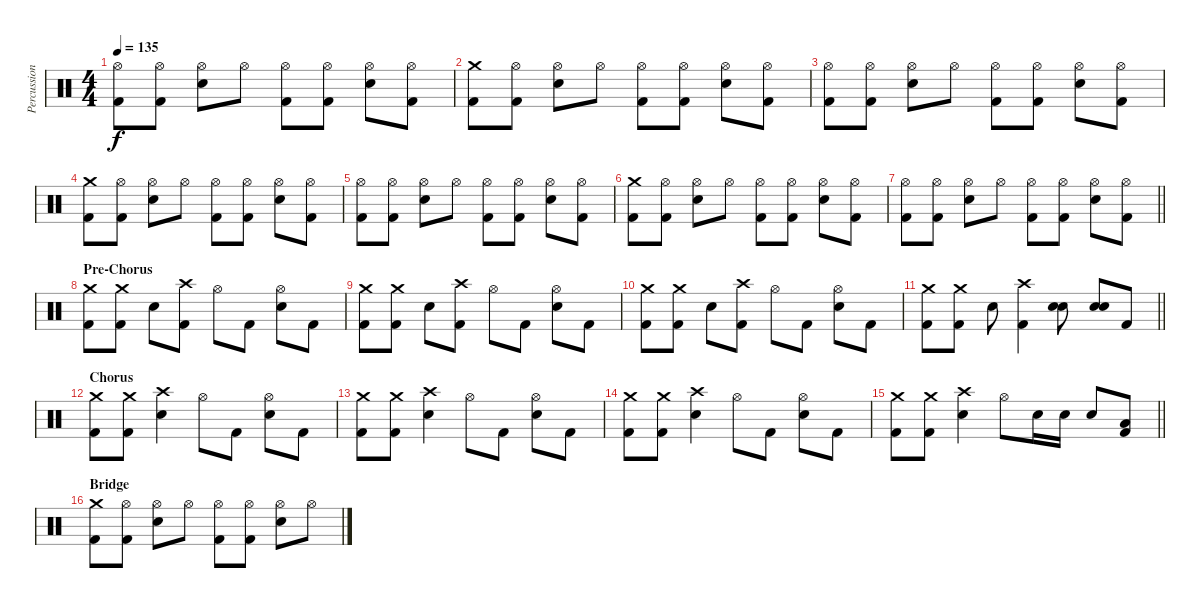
\track ("Percussion" "Percussion") {instrument percussion}
\staff {score}
\articulation defaults
\ts (4 4)
\tempo 135
\clef neutral
\ks c
("Hi-Hat (open)" "Kick (hit) 2").8{dy f} ("Hi-Hat (open)" "Kick (hit) 2").8 ("Hi-Hat (open)" "Electric Snare (hit)").8 "Hi-Hat (open)".8 ("Hi-Hat (open)" "Kick (hit) 2").8 ("Hi-Hat (open)" "Kick (hit) 2").8 ("Hi-Hat (open)" "Electric Snare (hit)").8 ("Hi-Hat (open)" "Kick (hit) 2").8 |
("Crash medium (hit)" "Kick (hit) 2").8 ("Hi-Hat (open)" "Kick (hit) 2").8 ("Hi-Hat (open)" "Electric Snare (hit)").8 "Hi-Hat (open)".8 ("Hi-Hat (open)" "Kick (hit) 2").8 ("Hi-Hat (open)" "Kick (hit) 2").8 ("Hi-Hat (open)" "Electric Snare (hit)").8 ("Hi-Hat (open)" "Kick (hit) 2").8 |
("Hi-Hat (open)" "Kick (hit) 2").8 ("Hi-Hat (open)" "Kick (hit) 2").8 ("Hi-Hat (open)" "Electric Snare (hit)").8 "Hi-Hat (open)".8 ("Hi-Hat (open)" "Kick (hit) 2").8 ("Hi-Hat (open)" "Kick (hit) 2").8 ("Hi-Hat (open)" "Electric Snare (hit)").8 ("Hi-Hat (open)" "Kick (hit) 2").8 |
("Crash medium (hit)" "Kick (hit) 2").8 ("Hi-Hat (open)" "Kick (hit) 2").8 ("Hi-Hat (open)" "Electric Snare (hit)").8 "Hi-Hat (open)".8 ("Hi-Hat (open)" "Kick (hit) 2").8 ("Hi-Hat (open)" "Kick (hit) 2").8 ("Hi-Hat (open)" "Electric Snare (hit)").8 ("Hi-Hat (open)" "Kick (hit) 2").8 |
("Hi-Hat (open)" "Kick (hit) 2").8 ("Hi-Hat (open)" "Kick (hit) 2").8 ("Hi-Hat (open)" "Electric Snare (hit)").8 "Hi-Hat (open)".8 ("Hi-Hat (open)" "Kick (hit) 2").8 ("Hi-Hat (open)" "Kick (hit) 2").8 ("Hi-Hat (open)" "Electric Snare (hit)").8 ("Hi-Hat (open)" "Kick (hit) 2").8 |
("Crash medium (hit)" "Kick (hit) 2").8 ("Hi-Hat (open)" "Kick (hit) 2").8 ("Hi-Hat (open)" "Electric Snare (hit)").8 "Hi-Hat (open)".8 ("Hi-Hat (open)" "Kick (hit) 2").8 ("Hi-Hat (open)" "Kick (hit) 2").8 ("Hi-Hat (open)" "Electric Snare (hit)").8 ("Hi-Hat (open)" "Kick (hit) 2").8 |
\barLineRight lightlight
("Hi-Hat (open)" "Kick (hit) 2").8 ("Hi-Hat (open)" "Kick (hit) 2").8 ("Hi-Hat (open)" "Electric Snare (hit)").8 "Hi-Hat (open)".8 ("Hi-Hat (open)" "Kick (hit) 2").8 ("Hi-Hat (open)" "Kick (hit) 2").8 ("Hi-Hat (open)" "Electric Snare (hit)").8 ("Hi-Hat (open)" "Kick (hit) 2").8 |
\section ("" "Pre-Chorus")
("Crash medium (hit)" "Kick (hit) 2").8 ("Crash medium (hit)" "Kick (hit) 2").8 "Electric Snare (hit)".8 ("Crash high (hit)" "Kick (hit) 2").8 "Hi-Hat (open)".8 "Kick (hit) 2".8 ("Hi-Hat (open)" "Electric Snare (hit)").8 "Kick (hit) 2".8 |
("Crash medium (hit)" "Kick (hit) 2").8 ("Crash medium (hit)" "Kick (hit) 2").8 "Electric Snare (hit)".8 ("Crash high (hit)" "Kick (hit) 2").8 "Hi-Hat (open)".8 "Kick (hit) 2".8 ("Hi-Hat (open)" "Electric Snare (hit)").8 "Kick (hit) 2".8 |
("Crash medium (hit)" "Kick (hit) 2").8 ("Crash medium (hit)" "Kick (hit) 2").8 "Electric Snare (hit)".8 ("Crash high (hit)" "Kick (hit) 2").8 "Hi-Hat (open)".8 "Kick (hit) 2".8 ("Hi-Hat (open)" "Electric Snare (hit)").8 "Kick (hit) 2".8 |
\barLineRight lightlight
("Crash medium (hit)" "Kick (hit) 2").8 ("Crash medium (hit)" "Kick (hit) 2").8 "Electric Snare (hit)".8 ("Crash high (hit)" "Kick (hit) 2").4 ("Electric Snare (hit)" "Electric Snare (hit)").8 ("Electric Snare (hit)" "Electric Snare (hit)").8 "Kick (hit) 2".8 |
\section ("" "Chorus")
("Crash medium (hit)" "Kick (hit) 2").8 ("Crash medium (hit)" "Kick (hit) 2").8 ("Crash high (hit)" "Electric Snare (hit)").4 "Hi-Hat (open)".8 "Kick (hit) 2".8 ("Hi-Hat (open)" "Electric Snare (hit)").8 "Kick (hit) 2".8 |
("Crash medium (hit)" "Kick (hit) 2").8 ("Crash medium (hit)" "Kick (hit) 2").8 ("Crash high (hit)" "Electric Snare (hit)").4 "Hi-Hat (open)".8 "Kick (hit) 2".8 ("Hi-Hat (open)" "Electric Snare (hit)").8 "Kick (hit) 2".8 |
("Crash medium (hit)" "Kick (hit) 2").8 ("Crash medium (hit)" "Kick (hit) 2").8 ("Crash high (hit)" "Electric Snare (hit)").4 "Hi-Hat (open)".8 "Kick (hit) 2".8 ("Hi-Hat (open)" "Electric Snare (hit)").8 "Kick (hit) 2".8 |
\barLineRight lightlight
("Crash medium (hit)" "Kick (hit) 2").8 ("Crash medium (hit)" "Kick (hit) 2").8 ("Crash high (hit)" "Electric Snare (hit)").4 "Hi-Hat (open)".8 "Electric Snare (hit)".16 "Electric Snare (hit)".16 "Electric Snare (hit)".8 ("Low Floor Tom (hit)" "Kick (hit) 2").8 |
\section ("" "Bridge")
("Crash medium (hit)" "Kick (hit) 2").8 ("Hi-Hat (open)" "Kick (hit) 2").8 ("Hi-Hat (open)" "Electric Snare (hit)").8 "Hi-Hat (open)".8 ("Hi-Hat (open)" "Kick (hit) 2").8 ("Hi-Hat (open)" "Kick (hit) 2").8 ("Hi-Hat (open)" "Electric Snare (hit)").8 "Hi-Hat (open)".8
